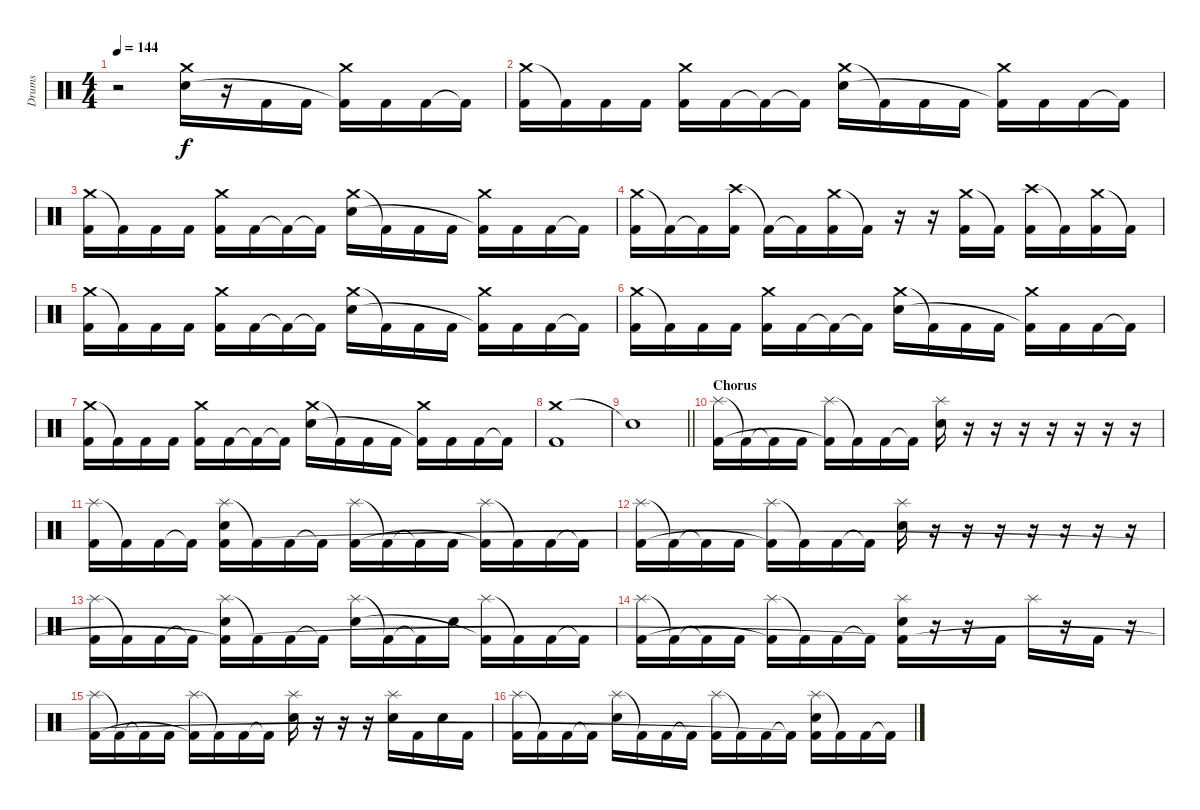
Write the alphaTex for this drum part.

\track ("Drums" "Drums") {instrument percussion}
\staff {score}
\articulation defaults
\ts (4 4)
\section ("" "")
\tempo 144
\clef neutral
\ks c
r.2{dy f} ("Crash medium (hit)" "Electric Snare (hit)").16 r.16 "Kick (hit) 2".16 "Kick (hit) 2".16 ("Crash medium (hit)" "Kick (hit) 2"{t}).16 "Kick (hit) 2".16 "Kick (hit) 2".16 "Kick (hit) 2"{t}.16 |
("Crash medium (hit)" "Kick (hit) 2").16 "Kick (hit) 2"{t}.16 "Kick (hit) 2".16 "Kick (hit) 2".16 ("Crash medium (hit)" "Kick (hit) 2").16 "Kick (hit) 2".16 "Kick (hit) 2"{t}.16 "Kick (hit) 2"{t}.16 ("Crash medium (hit)" "Electric Snare (hit)").16 "Kick (hit) 2"{t}.16 "Kick (hit) 2".16 "Kick (hit) 2".16 ("Crash medium (hit)" "Kick (hit) 2"{t}).16 "Kick (hit) 2".16 "Kick (hit) 2".16 "Kick (hit) 2"{t}.16 |
("Crash medium (hit)" "Kick (hit) 2").16 "Kick (hit) 2"{t}.16 "Kick (hit) 2".16 "Kick (hit) 2".16 ("Crash medium (hit)" "Kick (hit) 2").16 "Kick (hit) 2".16 "Kick (hit) 2"{t}.16 "Kick (hit) 2"{t}.16 ("Crash medium (hit)" "Electric Snare (hit)").16 "Kick (hit) 2"{t}.16 "Kick (hit) 2".16 "Kick (hit) 2".16 ("Crash medium (hit)" "Kick (hit) 2"{t}).16 "Kick (hit) 2".16 "Kick (hit) 2".16 "Kick (hit) 2"{t}.16 |
("Crash medium (hit)" "Kick (hit) 2").16 "Kick (hit) 2"{t}.16 "Kick (hit) 2"{t}.16 ("Crash high (hit)" "Kick (hit) 2").16 "Kick (hit) 2"{t}.16 "Kick (hit) 2"{t}.16 ("Crash medium (hit)" "Kick (hit) 2").16 "Kick (hit) 2"{t}.16 r.16 r.16 ("Crash medium (hit)" "Kick (hit) 2").16 "Kick (hit) 2"{t}.16 ("Crash high (hit)" "Kick (hit) 2").16 "Kick (hit) 2"{t}.16 ("Crash medium (hit)" "Kick (hit) 2").16 "Kick (hit) 2"{t}.16 |
("Crash medium (hit)" "Kick (hit) 2").16 "Kick (hit) 2"{t}.16 "Kick (hit) 2".16 "Kick (hit) 2".16 ("Crash medium (hit)" "Kick (hit) 2").16 "Kick (hit) 2".16 "Kick (hit) 2"{t}.16 "Kick (hit) 2"{t}.16 ("Crash medium (hit)" "Electric Snare (hit)").16 "Kick (hit) 2"{t}.16 "Kick (hit) 2".16 "Kick (hit) 2".16 ("Crash medium (hit)" "Kick (hit) 2"{t}).16 "Kick (hit) 2".16 "Kick (hit) 2".16 "Kick (hit) 2"{t}.16 |
("Crash medium (hit)" "Kick (hit) 2").16 "Kick (hit) 2"{t}.16 "Kick (hit) 2".16 "Kick (hit) 2".16 ("Crash medium (hit)" "Kick (hit) 2").16 "Kick (hit) 2".16 "Kick (hit) 2"{t}.16 "Kick (hit) 2"{t}.16 ("Crash medium (hit)" "Electric Snare (hit)").16 "Kick (hit) 2"{t}.16 "Kick (hit) 2".16 "Kick (hit) 2".16 ("Crash medium (hit)" "Kick (hit) 2"{t}).16 "Kick (hit) 2".16 "Kick (hit) 2".16 "Kick (hit) 2"{t}.16 |
("Crash medium (hit)" "Kick (hit) 2").16 "Kick (hit) 2"{t}.16 "Kick (hit) 2".16 "Kick (hit) 2".16 ("Crash medium (hit)" "Kick (hit) 2").16 "Kick (hit) 2".16 "Kick (hit) 2"{t}.16 "Kick (hit) 2"{t}.16 ("Crash medium (hit)" "Electric Snare (hit)").16 "Kick (hit) 2"{t}.16 "Kick (hit) 2".16 "Kick (hit) 2".16 ("Crash medium (hit)" "Kick (hit) 2"{t}).16 "Kick (hit) 2".16 "Kick (hit) 2".16 "Kick (hit) 2"{t}.16 |
("Crash medium (hit)" "Kick (hit) 2").1 |
\barLineRight lightlight "Snare (hit)"{t}.1
|
\section ("" "Chorus")
("Splash (hit)" "Kick (hit) 2").16 "Kick (hit) 2"{t}.16 "Kick (hit) 2"{t}.16 "Kick (hit) 2".16 ("Splash (hit)" "Kick (hit) 2"{t}).16 "Kick (hit) 2"{t}.16 "Kick (hit) 2".16 "Kick (hit) 2"{t}.16 ("Splash (hit)" "Electric Snare (hit)").16 r.16 r.16 r.16 r.16 r.16 r.16 r.16 |
("Splash (hit)" "Kick (hit) 2").16 "Kick (hit) 2"{t}.16 "Kick (hit) 2".16 "Kick (hit) 2"{t}.16 ("Splash (hit)" "Electric Snare (hit)" "Kick (hit) 2").16 "Kick (hit) 2"{t}.16 "Kick (hit) 2".16 "Kick (hit) 2"{t}.16 ("Splash (hit)" "Kick (hit) 2").16 "Kick (hit) 2"{t}.16 "Kick (hit) 2"{t}.16 "Kick (hit) 2".16 ("Splash (hit)" "Kick (hit) 2"{t}).16 "Kick (hit) 2"{t}.16 "Kick (hit) 2".16 "Kick (hit) 2"{t}.16 |
("Splash (hit)" "Kick (hit) 2").16 "Kick (hit) 2"{t}.16 "Kick (hit) 2"{t}.16 "Kick (hit) 2".16 ("Splash (hit)" "Kick (hit) 2"{t}).16 "Kick (hit) 2"{t}.16 "Kick (hit) 2".16 "Kick (hit) 2"{t}.16 ("Splash (hit)" "Electric Snare (hit)").16 r.16 r.16 r.16 r.16 r.16 r.16 r.16 |
("Splash (hit)" "Kick (hit) 2").16 "Kick (hit) 2"{t}.16 "Kick (hit) 2".16 "Kick (hit) 2"{t}.16 ("Splash (hit)" "Electric Snare (hit)" "Kick (hit) 2"{t}).16 "Kick (hit) 2"{t}.16 "Kick (hit) 2".16 "Kick (hit) 2"{t}.16 ("Splash (hit)" "Electric Snare (hit)").16 "Kick (hit) 2"{t}.16 "Kick (hit) 2"{t}.16 "Electric Snare (hit)".16 ("Splash (hit)" "Kick (hit) 2"{t}).16 "Kick (hit) 2"{t}.16 "Kick (hit) 2".16 "Kick (hit) 2"{t}.16 |
("Splash (hit)" "Kick (hit) 2").16 "Kick (hit) 2"{t}.16 "Kick (hit) 2"{t}.16 "Kick (hit) 2".16 ("Splash (hit)" "Kick (hit) 2"{t}).16 "Kick (hit) 2"{t}.16 "Kick (hit) 2".16 "Kick (hit) 2"{t}.16 ("Splash (hit)" "Electric Snare (hit)" "Kick (hit) 2"{t}).16 r.16 r.16 "Kick (hit) 2".16 "Splash (hit)".16 r.16 "Kick (hit) 2".16 r.16 |
("Splash (hit)" "Kick (hit) 2").16 "Kick (hit) 2"{t}.16 "Kick (hit) 2"{t}.16 "Kick (hit) 2".16 ("Splash (hit)" "Kick (hit) 2"{t}).16 "Kick (hit) 2"{t}.16 "Kick (hit) 2".16 "Kick (hit) 2"{t}.16 ("Splash (hit)" "Electric Snare (hit)").16 r.16 r.16 r.16 ("Splash (hit)" "Electric Snare (hit)").16 "Kick (hit) 2".16 "Electric Snare (hit)".16 "Kick (hit) 2".16 |
("Splash (hit)" "Kick (hit) 2").16 "Kick (hit) 2"{t}.16 "Kick (hit) 2".16 "Kick (hit) 2"{t}.16 ("Splash (hit)" "Electric Snare (hit)").16 "Kick (hit) 2"{t}.16 "Kick (hit) 2".16 "Kick (hit) 2"{t}.16 ("Splash (hit)" "Kick (hit) 2").16 "Kick (hit) 2"{t}.16 "Kick (hit) 2".16 "Kick (hit) 2"{t}.16 ("Splash (hit)" "Electric Snare (hit)" "Kick (hit) 2"{t}).16 "Kick (hit) 2"{t}.16 "Kick (hit) 2".16 "Kick (hit) 2"{t}.16
